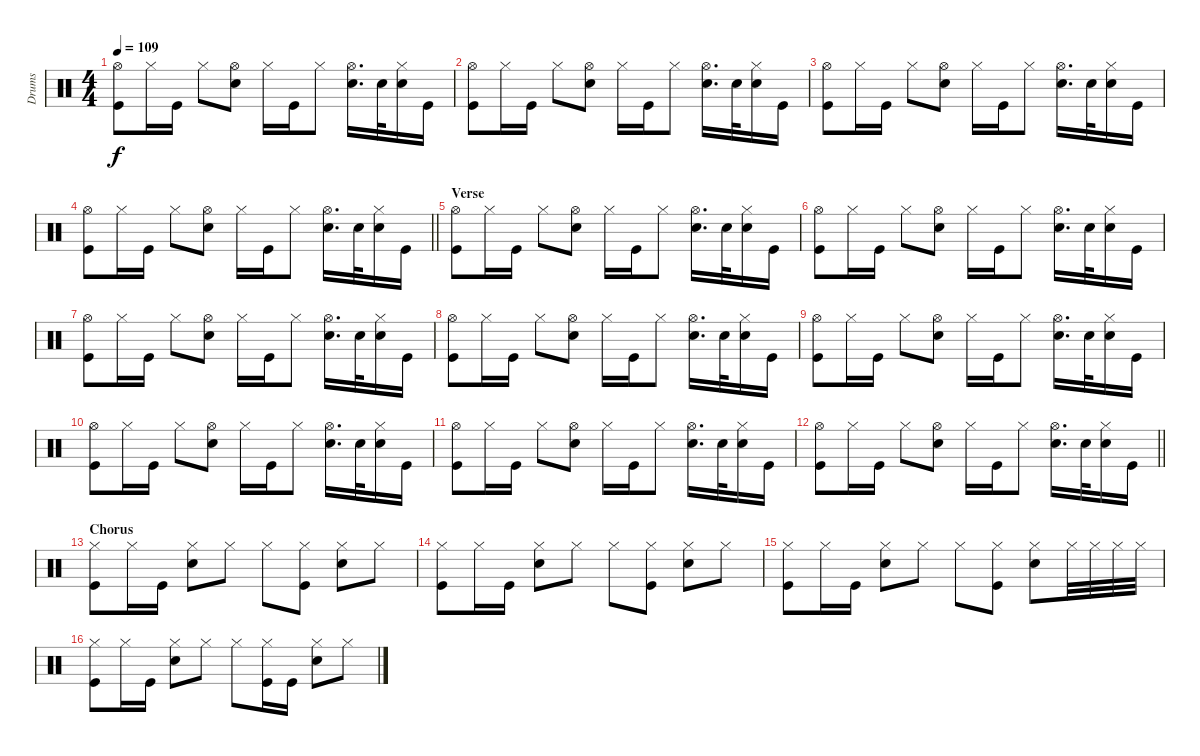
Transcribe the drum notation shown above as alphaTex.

\track ("Drums" "Drums") {instrument percussion}
\staff {score}
\articulation defaults
\ts (4 4)
\tempo 109
\clef neutral
\ks c
("Hi-Hat (open)" "Kick (hit)").8{dy f} "Hi-Hat (closed)".16 "Kick (hit)".16 "Hi-Hat (closed)".8 ("Hi-Hat (open)" "Electric Snare (hit)").8 "Hi-Hat (closed)".16 "Kick (hit)".16 "Hi-Hat (closed)".8 ("Hi-Hat (open)" "Electric Snare (hit)").16{d} "Electric Snare (hit)".32 ("Hi-Hat (closed)" "Electric Snare (hit)").16 "Kick (hit)".16 |
("Hi-Hat (open)" "Kick (hit)").8 "Hi-Hat (closed)".16 "Kick (hit)".16 "Hi-Hat (closed)".8 ("Hi-Hat (open)" "Electric Snare (hit)").8 "Hi-Hat (closed)".16 "Kick (hit)".16 "Hi-Hat (closed)".8 ("Hi-Hat (open)" "Electric Snare (hit)").16{d} "Electric Snare (hit)".32 ("Hi-Hat (closed)" "Electric Snare (hit)").16 "Kick (hit)".16 |
("Hi-Hat (open)" "Kick (hit)").8 "Hi-Hat (closed)".16 "Kick (hit)".16 "Hi-Hat (closed)".8 ("Hi-Hat (open)" "Electric Snare (hit)").8 "Hi-Hat (closed)".16 "Kick (hit)".16 "Hi-Hat (closed)".8 ("Hi-Hat (open)" "Electric Snare (hit)").16{d} "Electric Snare (hit)".32 ("Hi-Hat (closed)" "Electric Snare (hit)").16 "Kick (hit)".16 |
\barLineRight lightlight
("Hi-Hat (open)" "Kick (hit)").8 "Hi-Hat (closed)".16 "Kick (hit)".16 "Hi-Hat (closed)".8 ("Hi-Hat (open)" "Electric Snare (hit)").8 "Hi-Hat (closed)".16 "Kick (hit)".16 "Hi-Hat (closed)".8 ("Hi-Hat (open)" "Electric Snare (hit)").16{d} "Electric Snare (hit)".32 ("Hi-Hat (closed)" "Electric Snare (hit)").16 "Kick (hit)".16 |
\section ("" "Verse")
("Hi-Hat (open)" "Kick (hit)").8 "Hi-Hat (closed)".16 "Kick (hit)".16 "Hi-Hat (closed)".8 ("Hi-Hat (open)" "Electric Snare (hit)").8 "Hi-Hat (closed)".16 "Kick (hit)".16 "Hi-Hat (closed)".8 ("Hi-Hat (open)" "Electric Snare (hit)").16{d} "Electric Snare (hit)".32 ("Hi-Hat (closed)" "Electric Snare (hit)").16 "Kick (hit)".16 |
("Hi-Hat (open)" "Kick (hit)").8 "Hi-Hat (closed)".16 "Kick (hit)".16 "Hi-Hat (closed)".8 ("Hi-Hat (open)" "Electric Snare (hit)").8 "Hi-Hat (closed)".16 "Kick (hit)".16 "Hi-Hat (closed)".8 ("Hi-Hat (open)" "Electric Snare (hit)").16{d} "Electric Snare (hit)".32 ("Hi-Hat (closed)" "Electric Snare (hit)").16 "Kick (hit)".16 |
("Hi-Hat (open)" "Kick (hit)").8 "Hi-Hat (closed)".16 "Kick (hit)".16 "Hi-Hat (closed)".8 ("Hi-Hat (open)" "Electric Snare (hit)").8 "Hi-Hat (closed)".16 "Kick (hit)".16 "Hi-Hat (closed)".8 ("Hi-Hat (open)" "Electric Snare (hit)").16{d} "Electric Snare (hit)".32 ("Hi-Hat (closed)" "Electric Snare (hit)").16 "Kick (hit)".16 |
("Hi-Hat (open)" "Kick (hit)").8 "Hi-Hat (closed)".16 "Kick (hit)".16 "Hi-Hat (closed)".8 ("Hi-Hat (open)" "Electric Snare (hit)").8 "Hi-Hat (closed)".16 "Kick (hit)".16 "Hi-Hat (closed)".8 ("Hi-Hat (open)" "Electric Snare (hit)").16{d} "Electric Snare (hit)".32 ("Hi-Hat (closed)" "Electric Snare (hit)").16 "Kick (hit)".16 |
("Hi-Hat (open)" "Kick (hit)").8 "Hi-Hat (closed)".16 "Kick (hit)".16 "Hi-Hat (closed)".8 ("Hi-Hat (open)" "Electric Snare (hit)").8 "Hi-Hat (closed)".16 "Kick (hit)".16 "Hi-Hat (closed)".8 ("Hi-Hat (open)" "Electric Snare (hit)").16{d} "Electric Snare (hit)".32 ("Hi-Hat (closed)" "Electric Snare (hit)").16 "Kick (hit)".16 |
("Hi-Hat (open)" "Kick (hit)").8 "Hi-Hat (closed)".16 "Kick (hit)".16 "Hi-Hat (closed)".8 ("Hi-Hat (open)" "Electric Snare (hit)").8 "Hi-Hat (closed)".16 "Kick (hit)".16 "Hi-Hat (closed)".8 ("Hi-Hat (open)" "Electric Snare (hit)").16{d} "Electric Snare (hit)".32 ("Hi-Hat (closed)" "Electric Snare (hit)").16 "Kick (hit)".16 |
("Hi-Hat (open)" "Kick (hit)").8 "Hi-Hat (closed)".16 "Kick (hit)".16 "Hi-Hat (closed)".8 ("Hi-Hat (open)" "Electric Snare (hit)").8 "Hi-Hat (closed)".16 "Kick (hit)".16 "Hi-Hat (closed)".8 ("Hi-Hat (open)" "Electric Snare (hit)").16{d} "Electric Snare (hit)".32 ("Hi-Hat (closed)" "Electric Snare (hit)").16 "Kick (hit)".16 |
\barLineRight lightlight
("Hi-Hat (open)" "Kick (hit)").8 "Hi-Hat (closed)".16 "Kick (hit)".16 "Hi-Hat (closed)".8 ("Hi-Hat (open)" "Electric Snare (hit)").8 "Hi-Hat (closed)".16 "Kick (hit)".16 "Hi-Hat (closed)".8 ("Hi-Hat (open)" "Electric Snare (hit)").16{d} "Electric Snare (hit)".32 ("Hi-Hat (closed)" "Electric Snare (hit)").16 "Kick (hit)".16 |
\section ("" "Chorus")
("Hi-Hat (closed)" "Kick (hit)").8 "Hi-Hat (closed)".16 "Kick (hit)".16 ("Hi-Hat (closed)" "Snare (hit) 2").8 "Hi-Hat (closed)".8 "Hi-Hat (closed)".8 ("Hi-Hat (closed)" "Kick (hit)").8 ("Hi-Hat (closed)" "Snare (hit) 2").8 "Hi-Hat (closed)".8 |
("Hi-Hat (closed)" "Kick (hit)").8 "Hi-Hat (closed)".16 "Kick (hit)".16 ("Hi-Hat (closed)" "Snare (hit) 2").8 "Hi-Hat (closed)".8 "Hi-Hat (closed)".8 ("Hi-Hat (closed)" "Kick (hit)").8 ("Hi-Hat (closed)" "Snare (hit) 2").8 "Hi-Hat (closed)".8 |
("Hi-Hat (closed)" "Kick (hit)").8 "Hi-Hat (closed)".16 "Kick (hit)".16 ("Hi-Hat (closed)" "Snare (hit) 2").8 "Hi-Hat (closed)".8 "Hi-Hat (closed)".8 ("Hi-Hat (closed)" "Kick (hit)").8 ("Hi-Hat (closed)" "Snare (hit) 2").8 "Hi-Hat (closed)".32 "Hi-Hat (closed)".32 "Hi-Hat (closed)".32 "Hi-Hat (closed)".32 |
("Hi-Hat (closed)" "Kick (hit)").8 "Hi-Hat (closed)".16 "Kick (hit)".16 ("Hi-Hat (closed)" "Snare (hit) 2").8 "Hi-Hat (closed)".8 "Hi-Hat (closed)".8 ("Hi-Hat (closed)" "Kick (hit)").16 "Kick (hit)".16 ("Hi-Hat (closed)" "Snare (hit) 2").8 "Hi-Hat (closed)".8
